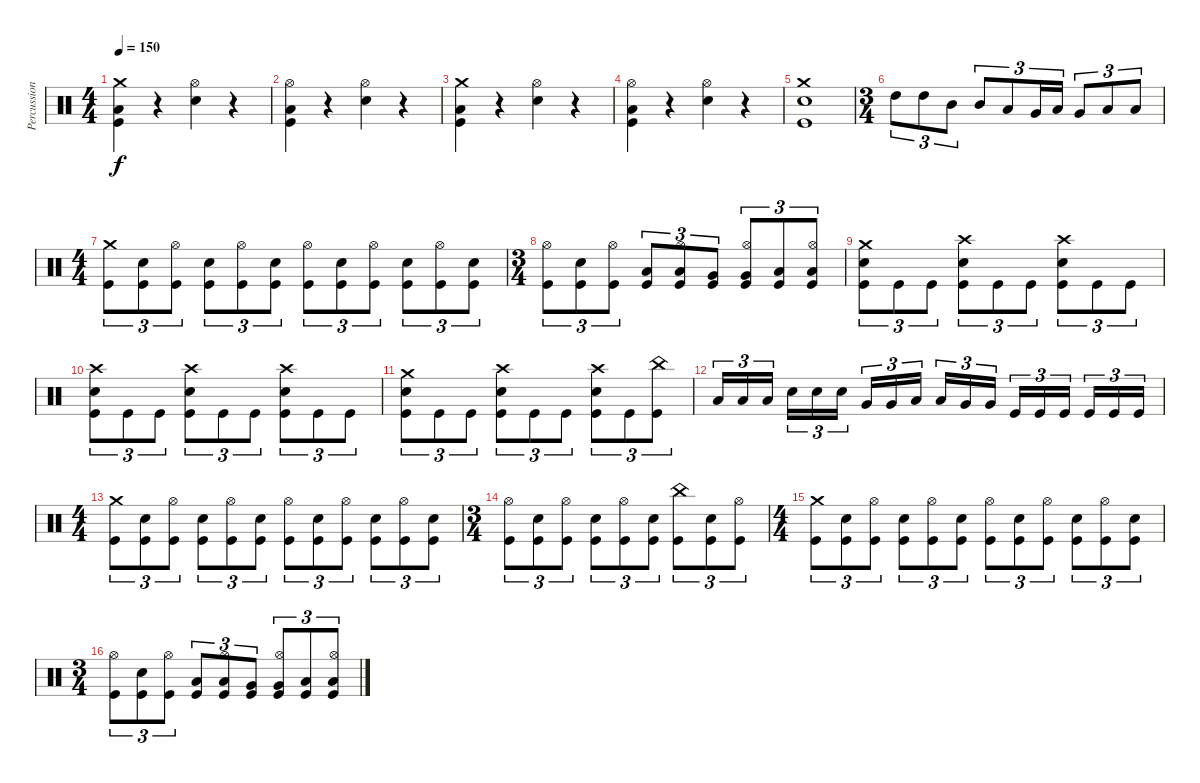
\track ("Percussions" "Percussion") {instrument percussion}
\staff {score}
\articulation defaults
\ts (4 4)
\tempo 150
\clef neutral
\ks c
("Crash medium (hit)" "Low Floor Tom (hit)" "Kick (hit)").4{dy f} r.4 ("Hi-Hat (open)" "Snare (hit) 2").4 r.4 |
("Hi-Hat (open)" "Low Floor Tom (hit)" "Kick (hit)").4 r.4 ("Hi-Hat (open)" "Snare (hit) 2").4 r.4 |
("Crash medium (hit)" "Low Floor Tom (hit)" "Kick (hit)").4 r.4 ("Hi-Hat (open)" "Snare (hit) 2").4 r.4 |
("Hi-Hat (open)" "Low Floor Tom (hit)" "Kick (hit)").4 r.4 ("Hi-Hat (open)" "Snare (hit) 2").4 r.4 |
("Crash medium (hit)" "Snare (hit) 2" "Kick (hit)").1 |
\ts (3 4)
"High Tom (hit)".8{tu (3 2)} "High Tom (hit)".8{tu (3 2)} "Mid Tom (hit)".8{tu (3 2)} "Mid Tom (hit)".8{tu (3 2)} "Low Tom (hit)".8{tu (3 2)} "Very Low Tom (hit)".16{tu (3 2)} "Low Tom (hit)".16{tu (3 2)} "Very Low Tom (hit)".8{tu (3 2)} "Low Floor Tom (hit)".8{tu (3 2)} "Low Floor Tom (hit)".8{tu (3 2)} |
\ts (4 4)
("Crash medium (hit)" "Kick (hit)").8{tu (3 2)} ("Snare (hit) 2" "Kick (hit)").8{tu (3 2)} ("Hi-Hat (open)" "Kick (hit)").8{tu (3 2)} ("Snare (hit) 2" "Kick (hit)").8{tu (3 2)} ("Hi-Hat (open)" "Kick (hit)").8{tu (3 2)} ("Snare (hit) 2" "Kick (hit)").8{tu (3 2)} ("Hi-Hat (open)" "Kick (hit)").8{tu (3 2)} ("Snare (hit) 2" "Kick (hit)").8{tu (3 2)} ("Hi-Hat (open)" "Kick (hit)").8{tu (3 2)} ("Snare (hit) 2" "Kick (hit)").8{tu (3 2)} ("Hi-Hat (open)" "Kick (hit)").8{tu (3 2)} ("Snare (hit) 2" "Kick (hit)").8{tu (3 2)} |
\ts (3 4)
("Hi-Hat (open)" "Kick (hit)").8{tu (3 2)} ("Snare (hit) 2" "Kick (hit)").8{tu (3 2)} ("Hi-Hat (open)" "Kick (hit)").8{tu (3 2)} ("Low Tom (hit)" "Kick (hit)").8{tu (3 2)} ("Hi-Hat (open)" "Low Tom (hit)" "Kick (hit)").8{tu (3 2)} ("Very Low Tom (hit)" "Kick (hit)").8{tu (3 2)} ("Hi-Hat (open)" "Very Low Tom (hit)" "Kick (hit)").8{tu (3 2)} ("Low Tom (hit)" "Kick (hit)").8{tu (3 2)} ("Hi-Hat (open)" "Low Tom (hit)" "Kick (hit)").8{tu (3 2)} |
("Crash medium (hit)" "Snare (hit) 2" "Kick (hit)").8{tu (3 2)} "Kick (hit)".8{tu (3 2)} "Kick (hit)".8{tu (3 2)} ("Crash high (hit)" "Snare (hit) 2" "Kick (hit)").8{tu (3 2)} "Kick (hit)".8{tu (3 2)} "Kick (hit)".8{tu (3 2)} ("Crash high (hit)" "Snare (hit) 2" "Kick (hit)").8{tu (3 2)} "Kick (hit)".8{tu (3 2)} "Kick (hit)".8{tu (3 2)} |
("Crash high (hit)" "Snare (hit) 2" "Kick (hit)").8{tu (3 2)} "Kick (hit)".8{tu (3 2)} "Kick (hit)".8{tu (3 2)} ("Crash high (hit)" "Snare (hit) 2" "Kick (hit)").8{tu (3 2)} "Kick (hit)".8{tu (3 2)} "Kick (hit)".8{tu (3 2)} ("Crash high (hit)" "Snare (hit) 2" "Kick (hit)").8{tu (3 2)} "Kick (hit)".8{tu (3 2)} "Kick (hit)".8{tu (3 2)} |
("Crash medium (hit)" "Snare (hit) 2" "Kick (hit)").8{tu (3 2)} "Kick (hit)".8{tu (3 2)} "Kick (hit)".8{tu (3 2)} ("Crash high (hit)" "Snare (hit) 2" "Kick (hit)").8{tu (3 2)} "Kick (hit)".8{tu (3 2)} "Kick (hit)".8{tu (3 2)} ("Crash high (hit)" "Snare (hit) 2" "Kick (hit)").8{tu (3 2)} "Kick (hit)".8{tu (3 2)} ("China (hit)" "Kick (hit)").8{tu (3 2)} |
"Low Tom (hit)".16{tu (3 2)} "Low Tom (hit)".16{tu (3 2)} "Low Tom (hit)".16{tu (3 2)} "Snare (hit) 2".16{tu (3 2)} "Snare (hit) 2".16{tu (3 2)} "Snare (hit) 2".16{tu (3 2)} "Very Low Tom (hit)".16{tu (3 2)} "Very Low Tom (hit)".16{tu (3 2)} "Low Tom (hit)".16{tu (3 2)} "Low Tom (hit)".16{tu (3 2)} "Very Low Tom (hit)".16{tu (3 2)} "Very Low Tom (hit)".16{tu (3 2)} "Kick (hit)".16{tu (3 2)} "Kick (hit)".16{tu (3 2)} "Kick (hit)".16{tu (3 2)} "Kick (hit)".16{tu (3 2)} "Kick (hit)".16{tu (3 2)} "Kick (hit)".16{tu (3 2)} |
\ts (4 4)
("Crash medium (hit)" "Kick (hit)").8{tu (3 2)} ("Snare (hit) 2" "Kick (hit)").8{tu (3 2)} ("Hi-Hat (open)" "Kick (hit)").8{tu (3 2)} ("Snare (hit) 2" "Kick (hit)").8{tu (3 2)} ("Hi-Hat (open)" "Kick (hit)").8{tu (3 2)} ("Snare (hit) 2" "Kick (hit)").8{tu (3 2)} ("Hi-Hat (open)" "Kick (hit)").8{tu (3 2)} ("Snare (hit) 2" "Kick (hit)").8{tu (3 2)} ("Hi-Hat (open)" "Kick (hit)").8{tu (3 2)} ("Snare (hit) 2" "Kick (hit)").8{tu (3 2)} ("Hi-Hat (open)" "Kick (hit)").8{tu (3 2)} ("Snare (hit) 2" "Kick (hit)").8{tu (3 2)} |
\ts (3 4)
("Hi-Hat (open)" "Kick (hit)").8{tu (3 2)} ("Snare (hit) 2" "Kick (hit)").8{tu (3 2)} ("Hi-Hat (open)" "Kick (hit)").8{tu (3 2)} ("Snare (hit) 2" "Kick (hit)").8{tu (3 2)} ("Hi-Hat (open)" "Kick (hit)").8{tu (3 2)} ("Snare (hit) 2" "Kick (hit)").8{tu (3 2)} ("China (hit)" "Kick (hit)").8{tu (3 2)} ("Snare (hit) 2" "Kick (hit)").8{tu (3 2)} ("Hi-Hat (open)" "Kick (hit)").8{tu (3 2)} |
\ts (4 4)
("Crash medium (hit)" "Kick (hit)").8{tu (3 2)} ("Snare (hit) 2" "Kick (hit)").8{tu (3 2)} ("Hi-Hat (open)" "Kick (hit)").8{tu (3 2)} ("Snare (hit) 2" "Kick (hit)").8{tu (3 2)} ("Hi-Hat (open)" "Kick (hit)").8{tu (3 2)} ("Snare (hit) 2" "Kick (hit)").8{tu (3 2)} ("Hi-Hat (open)" "Kick (hit)").8{tu (3 2)} ("Snare (hit) 2" "Kick (hit)").8{tu (3 2)} ("Hi-Hat (open)" "Kick (hit)").8{tu (3 2)} ("Snare (hit) 2" "Kick (hit)").8{tu (3 2)} ("Hi-Hat (open)" "Kick (hit)").8{tu (3 2)} ("Snare (hit) 2" "Kick (hit)").8{tu (3 2)} |
\ts (3 4)
("Hi-Hat (open)" "Kick (hit)").8{tu (3 2)} ("Snare (hit) 2" "Kick (hit)").8{tu (3 2)} ("Hi-Hat (open)" "Kick (hit)").8{tu (3 2)} ("Low Tom (hit)" "Kick (hit)").8{tu (3 2)} ("Hi-Hat (open)" "Low Tom (hit)" "Kick (hit)").8{tu (3 2)} ("Very Low Tom (hit)" "Kick (hit)").8{tu (3 2)} ("Hi-Hat (open)" "Very Low Tom (hit)" "Kick (hit)").8{tu (3 2)} ("Low Tom (hit)" "Kick (hit)").8{tu (3 2)} ("Hi-Hat (open)" "Low Tom (hit)" "Kick (hit)").8{tu (3 2)}
